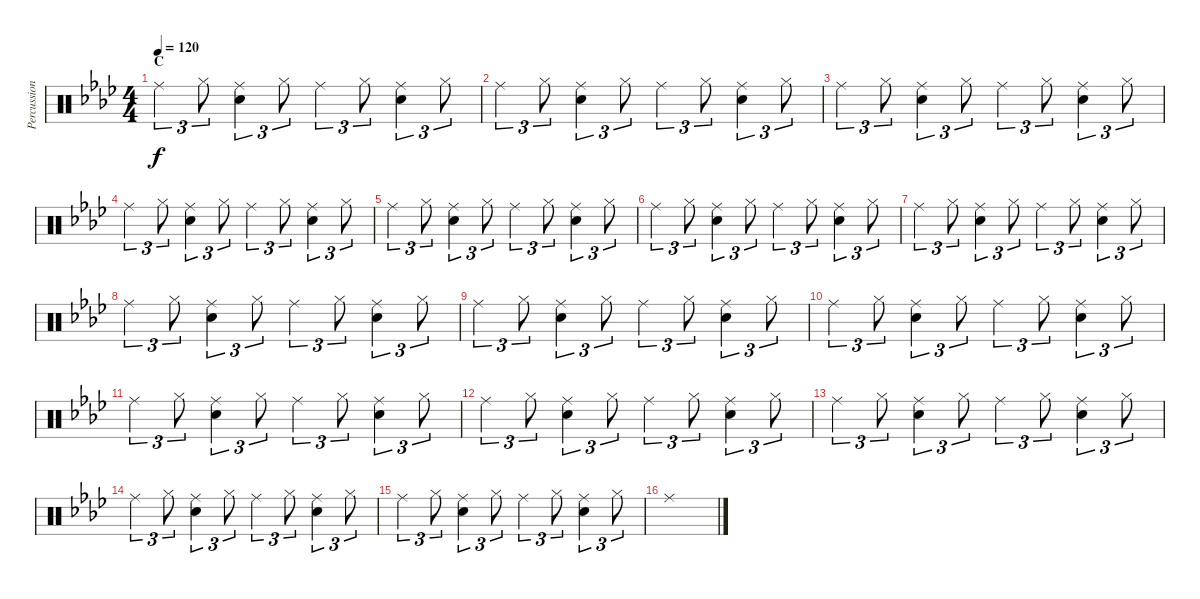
\track ("Percussion" "Percussion") {instrument percussion}
\staff {score}
\articulation defaults
\ts (4 4)
\section ("" "C")
\tempo 120
\clef neutral
\ks ab "Ride (middle)".4{tu (3 2) dy f} "Hi-Hat (closed)".8{tu (3 2)}
("Ride (middle)" "Snare (hit) 2").4{tu (3 2)} "Hi-Hat (closed)".8{tu (3 2)} "Ride (middle)".4{tu (3 2)} "Hi-Hat (closed)".8{tu (3 2)} ("Ride (middle)" "Snare (hit) 2").4{tu (3 2)} "Hi-Hat (closed)".8{tu (3 2)} |
"Ride (middle)".4{tu (3 2)} "Hi-Hat (closed)".8{tu (3 2)} ("Ride (middle)" "Snare (hit) 2").4{tu (3 2)} "Hi-Hat (closed)".8{tu (3 2)} "Ride (middle)".4{tu (3 2)} "Hi-Hat (closed)".8{tu (3 2)} ("Ride (middle)" "Snare (hit) 2").4{tu (3 2)} "Hi-Hat (closed)".8{tu (3 2)} |
"Ride (middle)".4{tu (3 2)} "Hi-Hat (closed)".8{tu (3 2)} ("Ride (middle)" "Snare (hit) 2").4{tu (3 2)} "Hi-Hat (closed)".8{tu (3 2)} "Ride (middle)".4{tu (3 2)} "Hi-Hat (closed)".8{tu (3 2)} ("Ride (middle)" "Snare (hit) 2").4{tu (3 2)} "Hi-Hat (closed)".8{tu (3 2)} |
"Ride (middle)".4{tu (3 2)} "Hi-Hat (closed)".8{tu (3 2)} ("Ride (middle)" "Snare (hit) 2").4{tu (3 2)} "Hi-Hat (closed)".8{tu (3 2)} "Ride (middle)".4{tu (3 2)} "Hi-Hat (closed)".8{tu (3 2)} ("Ride (middle)" "Snare (hit) 2").4{tu (3 2)} "Hi-Hat (closed)".8{tu (3 2)} |
"Ride (middle)".4{tu (3 2)} "Hi-Hat (closed)".8{tu (3 2)} ("Ride (middle)" "Snare (hit) 2").4{tu (3 2)} "Hi-Hat (closed)".8{tu (3 2)} "Ride (middle)".4{tu (3 2)} "Hi-Hat (closed)".8{tu (3 2)} ("Ride (middle)" "Snare (hit) 2").4{tu (3 2)} "Hi-Hat (closed)".8{tu (3 2)} |
"Ride (middle)".4{tu (3 2)} "Hi-Hat (closed)".8{tu (3 2)} ("Ride (middle)" "Snare (hit) 2").4{tu (3 2)} "Hi-Hat (closed)".8{tu (3 2)} "Ride (middle)".4{tu (3 2)} "Hi-Hat (closed)".8{tu (3 2)} ("Ride (middle)" "Snare (hit) 2").4{tu (3 2)} "Hi-Hat (closed)".8{tu (3 2)} |
"Ride (middle)".4{tu (3 2)} "Hi-Hat (closed)".8{tu (3 2)} ("Ride (middle)" "Snare (hit) 2").4{tu (3 2)} "Hi-Hat (closed)".8{tu (3 2)} "Ride (middle)".4{tu (3 2)} "Hi-Hat (closed)".8{tu (3 2)} ("Ride (middle)" "Snare (hit) 2").4{tu (3 2)} "Hi-Hat (closed)".8{tu (3 2)} |
"Ride (middle)".4{tu (3 2)} "Hi-Hat (closed)".8{tu (3 2)} ("Ride (middle)" "Snare (hit) 2").4{tu (3 2)} "Hi-Hat (closed)".8{tu (3 2)} "Ride (middle)".4{tu (3 2)} "Hi-Hat (closed)".8{tu (3 2)} ("Ride (middle)" "Snare (hit) 2").4{tu (3 2)} "Hi-Hat (closed)".8{tu (3 2)} |
"Ride (middle)".4{tu (3 2)} "Hi-Hat (closed)".8{tu (3 2)} ("Ride (middle)" "Snare (hit) 2").4{tu (3 2)} "Hi-Hat (closed)".8{tu (3 2)} "Ride (middle)".4{tu (3 2)} "Hi-Hat (closed)".8{tu (3 2)} ("Ride (middle)" "Snare (hit) 2").4{tu (3 2)} "Hi-Hat (closed)".8{tu (3 2)} |
"Ride (middle)".4{tu (3 2)} "Hi-Hat (closed)".8{tu (3 2)} ("Ride (middle)" "Snare (hit) 2").4{tu (3 2)} "Hi-Hat (closed)".8{tu (3 2)} "Ride (middle)".4{tu (3 2)} "Hi-Hat (closed)".8{tu (3 2)} ("Ride (middle)" "Snare (hit) 2").4{tu (3 2)} "Hi-Hat (closed)".8{tu (3 2)} |
"Ride (middle)".4{tu (3 2)} "Hi-Hat (closed)".8{tu (3 2)} ("Ride (middle)" "Snare (hit) 2").4{tu (3 2)} "Hi-Hat (closed)".8{tu (3 2)} "Ride (middle)".4{tu (3 2)} "Hi-Hat (closed)".8{tu (3 2)} ("Ride (middle)" "Snare (hit) 2").4{tu (3 2)} "Hi-Hat (closed)".8{tu (3 2)} |
"Ride (middle)".4{tu (3 2)} "Hi-Hat (closed)".8{tu (3 2)} ("Ride (middle)" "Snare (hit) 2").4{tu (3 2)} "Hi-Hat (closed)".8{tu (3 2)} "Ride (middle)".4{tu (3 2)} "Hi-Hat (closed)".8{tu (3 2)} ("Ride (middle)" "Snare (hit) 2").4{tu (3 2)} "Hi-Hat (closed)".8{tu (3 2)} |
"Ride (middle)".4{tu (3 2)} "Hi-Hat (closed)".8{tu (3 2)} ("Ride (middle)" "Snare (hit) 2").4{tu (3 2)} "Hi-Hat (closed)".8{tu (3 2)} "Ride (middle)".4{tu (3 2)} "Hi-Hat (closed)".8{tu (3 2)} ("Ride (middle)" "Snare (hit) 2").4{tu (3 2)} "Hi-Hat (closed)".8{tu (3 2)} |
"Ride (middle)".4{tu (3 2)} "Hi-Hat (closed)".8{tu (3 2)} ("Ride (middle)" "Snare (hit) 2").4{tu (3 2)} "Hi-Hat (closed)".8{tu (3 2)} "Ride (middle)".4{tu (3 2)} "Hi-Hat (closed)".8{tu (3 2)} ("Ride (middle)" "Snare (hit) 2").4{tu (3 2)} "Hi-Hat (closed)".8{tu (3 2)} |
"Ride (middle)".4{tu (3 2)} "Hi-Hat (closed)".8{tu (3 2)} ("Ride (middle)" "Snare (hit) 2").4{tu (3 2)} "Hi-Hat (closed)".8{tu (3 2)} "Ride (middle)".4{tu (3 2)} "Hi-Hat (closed)".8{tu (3 2)} ("Ride (middle)" "Snare (hit) 2").4{tu (3 2)} "Hi-Hat (closed)".8{tu (3 2)} |
"Ride (middle)".1
